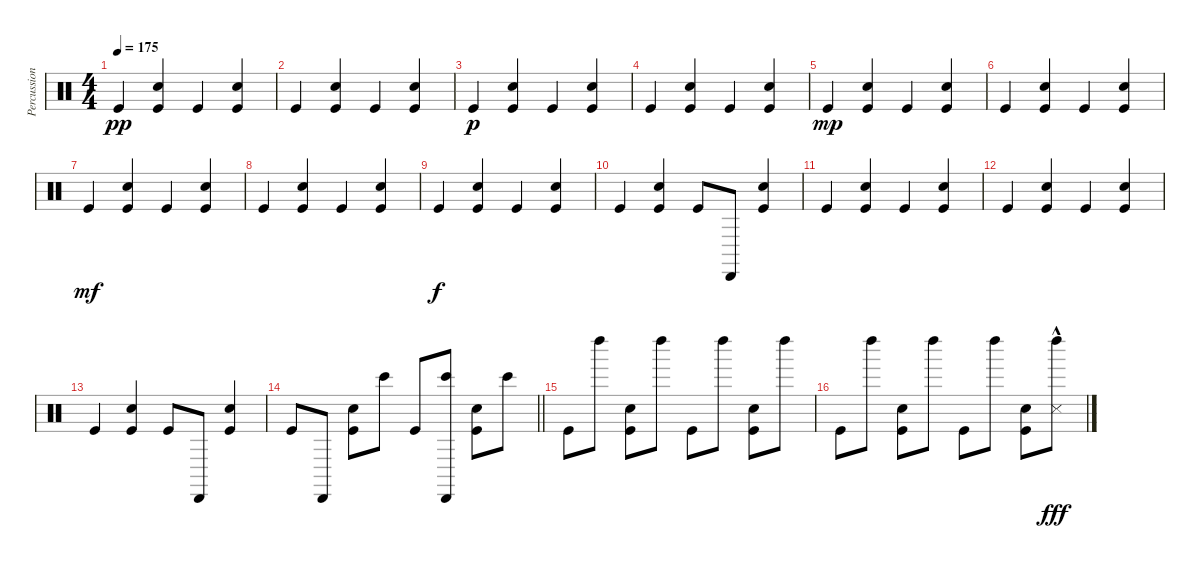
\track ("Percussion" "Percussion") {instrument percussion}
\staff {score}
\articulation defaults
\ts (4 4)
\tempo 175
\clef neutral
\ks c "Kick (hit)".4{dy pp}
("Kick (hit)" "Hand Clap (hit)").4 "Kick (hit)".4 ("Kick (hit)" "Hand Clap (hit)").4 |
"Kick (hit)".4 ("Kick (hit)" "Hand Clap (hit)").4 "Kick (hit)".4 ("Kick (hit)" "Hand Clap (hit)").4 |
"Kick (hit)".4{dy p} ("Kick (hit)" "Hand Clap (hit)").4 "Kick (hit)".4 ("Kick (hit)" "Hand Clap (hit)").4 |
"Kick (hit)".4 ("Kick (hit)" "Hand Clap (hit)").4 "Kick (hit)".4 ("Kick (hit)" "Hand Clap (hit)").4 |
"Kick (hit)".4{dy mp} ("Kick (hit)" "Hand Clap (hit)").4 "Kick (hit)".4 ("Kick (hit)" "Hand Clap (hit)").4 |
"Kick (hit)".4 ("Kick (hit)" "Hand Clap (hit)").4 "Kick (hit)".4 ("Kick (hit)" "Hand Clap (hit)").4 |
"Kick (hit)".4{dy mf} ("Kick (hit)" "Hand Clap (hit)").4 "Kick (hit)".4 ("Kick (hit)" "Hand Clap (hit)").4 |
"Kick (hit)".4 ("Kick (hit)" "Hand Clap (hit)").4 "Kick (hit)".4 ("Kick (hit)" "Hand Clap (hit)").4 |
"Kick (hit)".4{dy f} ("Kick (hit)" "Hand Clap (hit)").4 "Kick (hit)".4 ("Kick (hit)" "Hand Clap (hit)").4 |
"Kick (hit)".4 ("Kick (hit)" "Hand Clap (hit)").4 "Kick (hit)".8 "Cabasa (hit)".8 ("Kick (hit)" "Hand Clap (hit)").4 |
"Kick (hit)".4 ("Kick (hit)" "Hand Clap (hit)").4 "Kick (hit)".4 ("Kick (hit)" "Hand Clap (hit)").4 |
"Kick (hit)".4 ("Kick (hit)" "Hand Clap (hit)").4 "Kick (hit)".4 ("Kick (hit)" "Hand Clap (hit)").4 |
"Kick (hit)".4 ("Kick (hit)" "Hand Clap (hit)").4 "Kick (hit)".8 "Cabasa (hit)".8 ("Kick (hit)" "Hand Clap (hit)").4 |
\barLineRight lightlight "Kick (hit)".8 "Cabasa (hit)".8
("Kick (hit)" "Hand Clap (hit)").8 "Bongo High (hit)".8 "Kick (hit)".8 ("Cabasa (hit)" "Bongo High (hit)").8 ("Kick (hit)" "Hand Clap (hit)").8 "Bongo High (hit)".8 |
"Kick (hit)".8 "Left Maraca (hit)".8 ("Kick (hit)" "Hand Clap (hit)").8 "Left Maraca (hit)".8 "Kick (hit)".8 "Left Maraca (hit)".8 ("Kick (hit)" "Hand Clap (hit)").8 "Left Maraca (hit)".8 |
"Kick (hit)".8 "Left Maraca (hit)".8 ("Kick (hit)" "Hand Clap (hit)").8 "Left Maraca (hit)".8 "Kick (hit)".8 "Left Maraca (hit)".8 ("Kick (hit)" "Hand Clap (hit)").8 ("Left Maraca (hit)" "Metronome (hit)"{hac}).8{dy fff}
